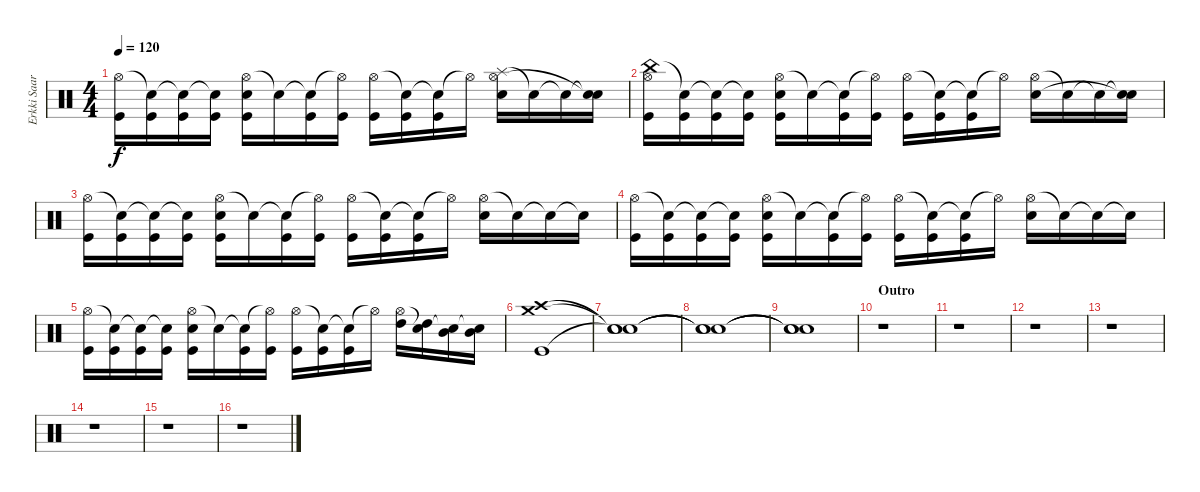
\track ("Erkki Saarinen" "Erkki Saar") {instrument percussion}
\staff {score}
\articulation defaults
\ts (4 4)
\tempo 120
\clef neutral
\ks c
("Hi-Hat (open)" "Kick (hit)").16{dy f} ("Snare (hit)"{t} "Kick (hit)").16 ("Snare (hit)"{t} "Kick (hit)").16 ("Snare (hit)"{t} "Kick (hit)").16 ("Hi-Hat (open)" "Snare (hit) 2" "Kick (hit)").16 "Snare (hit)"{t}.16 ("Snare (hit)"{t} "Kick (hit)").16 ("Hi-Hat (open)"{t} "Kick (hit)").16 ("Hi-Hat (open)" "Kick (hit)").16 ("Snare (hit)"{t} "Kick (hit)").16 ("Snare (hit)"{t} "Kick (hit)").16 "Hi-Hat (open)"{t}.16 ("Splash (hit)" "Hi-Hat (open)" "Snare (hit) 2").16 "Snare (hit)"{t}.16 "Snare (hit)"{t}.16 ("Snare (hit)"{t} "Snare (hit)"{t}).16 |
("China (hit)" "Hi-Hat (open)" "Kick (hit)").16 ("Snare (hit)"{t} "Kick (hit)").16 ("Snare (hit)"{t} "Kick (hit)").16 ("Snare (hit)"{t} "Kick (hit)").16 ("Hi-Hat (open)" "Snare (hit) 2" "Kick (hit)").16 "Snare (hit)"{t}.16 ("Snare (hit)"{t} "Kick (hit)").16 ("Hi-Hat (open)"{t} "Kick (hit)").16 ("Hi-Hat (open)" "Kick (hit)").16 ("Snare (hit)"{t} "Kick (hit)").16 ("Snare (hit)"{t} "Kick (hit)").16 "Hi-Hat (open)"{t}.16 ("Hi-Hat (open)" "Snare (hit) 2").16 "Snare (hit)"{t}.16 "Snare (hit)"{t}.16 ("Snare (hit)"{t} "Snare (hit)"{t}).16 |
("Hi-Hat (open)" "Kick (hit)").16 ("Snare (hit)"{t} "Kick (hit)").16 ("Snare (hit)"{t} "Kick (hit)").16 ("Snare (hit)"{t} "Kick (hit)").16 ("Hi-Hat (open)" "Snare (hit) 2" "Kick (hit)").16 "Snare (hit)"{t}.16 ("Snare (hit)"{t} "Kick (hit)").16 ("Hi-Hat (open)"{t} "Kick (hit)").16 ("Hi-Hat (open)" "Kick (hit)").16 ("Snare (hit)"{t} "Kick (hit)").16 ("Snare (hit)"{t} "Kick (hit)").16 "Hi-Hat (open)"{t}.16 ("Hi-Hat (open)" "Snare (hit) 2").16 "Snare (hit)"{t}.16 "Snare (hit)"{t}.16 "Snare (hit)"{t}.16 |
("Hi-Hat (open)" "Kick (hit)").16 ("Snare (hit)"{t} "Kick (hit)").16 ("Snare (hit)"{t} "Kick (hit)").16 ("Snare (hit)"{t} "Kick (hit)").16 ("Hi-Hat (open)" "Snare (hit) 2" "Kick (hit)").16 "Snare (hit)"{t}.16 ("Snare (hit)"{t} "Kick (hit)").16 ("Hi-Hat (open)"{t} "Kick (hit)").16 ("Hi-Hat (open)" "Kick (hit)").16 ("Snare (hit)"{t} "Kick (hit)").16 ("Snare (hit)"{t} "Kick (hit)").16 "Hi-Hat (open)"{t}.16 ("Hi-Hat (open)" "Snare (hit) 2").16 "Snare (hit)"{t}.16 "Snare (hit)"{t}.16 "Snare (hit)"{t}.16 |
("Hi-Hat (open)" "Kick (hit)").16 ("Snare (hit)"{t} "Kick (hit)").16 ("Snare (hit)"{t} "Kick (hit)").16 ("Snare (hit)"{t} "Kick (hit)").16 ("Hi-Hat (open)" "Snare (hit) 2" "Kick (hit)").16 "Snare (hit)"{t}.16 ("Snare (hit)"{t} "Kick (hit)").16 ("Hi-Hat (open)"{t} "Kick (hit)").16 ("Hi-Hat (open)" "Kick (hit)").16 ("Snare (hit)"{t} "Kick (hit)").16 ("Snare (hit)"{t} "Kick (hit)").16 "Hi-Hat (open)"{t}.16 ("Hi-Hat (open)" "High Tom (hit)").16 ("Snare (hit)"{t} "High Tom (hit)").16 ("Snare (hit)"{t} "Mid Tom (hit)").16 ("Snare (hit)"{t} "Mid Tom (hit)").16 |
("Crash medium (hit)" "Crash high (hit)" "Kick (hit)").1 |
("Snare (hit)"{t} "Snare (hit)"{t} "Snare (hit)"{t}).1 |
("Snare (hit)"{t} "Snare (hit)"{t} "Snare (hit)"{t}).1 |
("Snare (hit)"{t} "Snare (hit)"{t} "Snare (hit)"{t}).1 |
\section ("" "Outro")
r.1 |
r.1 |
r.1 |
r.1 |
r.1 |
r.1 |
r.1
